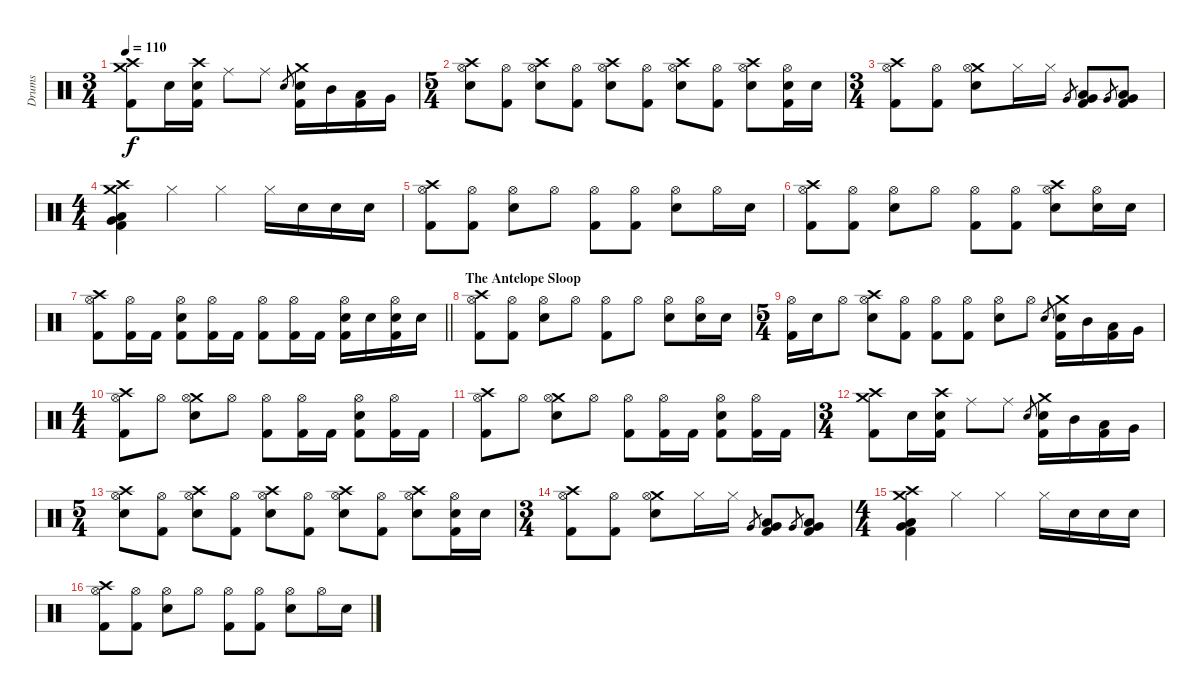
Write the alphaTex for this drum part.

\track ("Drums" "Drums") {instrument percussion}
\staff {score}
\articulation defaults
\ts (3 4)
\tempo 110
\clef neutral
\ks c
("Crash medium (hit)" "Crash high (hit)" "Kick (hit) 2").8{dy f} "Snare (hit) 2".16 ("Crash high (hit)" "Snare (hit) 2" "Kick (hit) 2").16 "Ride (middle)".8 "Ride (middle)".8 "Snare (hit) 2".8{gr} ("Crash medium (hit)" "Snare (hit) 2" "Kick (hit) 2").16 "Mid Tom (hit)".16 ("Low Tom (hit)" "Kick (hit) 2").16 "Very Low Tom (hit)".16 |
\ts (5 4)
("Crash high (hit)" "Hi-Hat (open)" "Snare (hit) 2").8 ("Hi-Hat (open)" "Kick (hit) 2").8 ("Crash high (hit)" "Hi-Hat (open)" "Snare (hit) 2").8 ("Hi-Hat (open)" "Kick (hit) 2").8 ("Crash high (hit)" "Hi-Hat (open)" "Snare (hit) 2").8 ("Hi-Hat (open)" "Kick (hit) 2").8 ("Crash high (hit)" "Hi-Hat (open)" "Snare (hit) 2").8 ("Hi-Hat (open)" "Kick (hit) 2").8 ("Crash high (hit)" "Hi-Hat (open)" "Snare (hit) 2").8 ("Hi-Hat (open)" "Snare (hit) 2" "Kick (hit) 2").16 "Snare (hit) 2".16 |
\ts (3 4)
("Crash high (hit)" "Hi-Hat (open)" "Kick (hit) 2").8 ("Hi-Hat (open)" "Kick (hit) 2").8 ("Crash medium (hit)" "Hi-Hat (open)" "Snare (hit) 2").8 "Hi-Hat (closed)".16 "Hi-Hat (closed)".16 "Very Low Tom (hit)".8{gr} ("Low Tom (hit)" "Very Low Tom (hit)" "Kick (hit) 2").8 "Very Low Tom (hit)".8{gr} ("Low Tom (hit)" "Very Low Tom (hit)" "Kick (hit) 2").8 |
\ts (4 4)
("Crash high (hit)" "Crash medium (hit)" "Low Tom (hit)" "Very Low Tom (hit)" "Kick (hit) 2").4 "Hi-Hat (closed)".4 "Hi-Hat (closed)".4 "Hi-Hat (closed)".16 "Snare (hit) 2".16 "Snare (hit) 2".16 "Snare (hit) 2".16 |
("Crash high (hit)" "Hi-Hat (open)" "Kick (hit) 2").8 ("Hi-Hat (open)" "Kick (hit) 2").8 ("Hi-Hat (open)" "Snare (hit) 2").8 "Hi-Hat (open)".8 ("Hi-Hat (open)" "Kick (hit) 2").8 ("Hi-Hat (open)" "Kick (hit) 2").8 ("Hi-Hat (open)" "Snare (hit) 2").8 "Hi-Hat (open)".16 "Snare (hit) 2".16 |
("Crash high (hit)" "Hi-Hat (open)" "Kick (hit) 2").8 ("Hi-Hat (open)" "Kick (hit) 2").8 ("Hi-Hat (open)" "Snare (hit) 2").8 "Hi-Hat (open)".8 ("Hi-Hat (open)" "Kick (hit) 2").8 ("Hi-Hat (open)" "Kick (hit) 2").8 ("Crash high (hit)" "Hi-Hat (open)" "Snare (hit) 2").8 ("Hi-Hat (open)" "Snare (hit) 2").16 "Snare (hit) 2".16 |
\barLineRight lightlight
("Crash high (hit)" "Hi-Hat (open)" "Kick (hit) 2").8 ("Hi-Hat (open)" "Kick (hit) 2").16 "Kick (hit) 2".16 ("Hi-Hat (open)" "Snare (hit) 2" "Kick (hit) 2").8 ("Hi-Hat (open)" "Kick (hit) 2").16 "Kick (hit) 2".16 ("Hi-Hat (open)" "Kick (hit) 2").8 ("Hi-Hat (open)" "Kick (hit) 2").16 "Kick (hit) 2".16 ("Hi-Hat (open)" "Snare (hit) 2" "Kick (hit) 2").16 "Snare (hit) 2".16 ("Hi-Hat (open)" "Snare (hit) 2" "Kick (hit) 2").16 "Snare (hit) 2".16 |
\section ("" "The Antelope Sloop")
("Crash high (hit)" "Hi-Hat (open)" "Kick (hit) 2").8 ("Hi-Hat (open)" "Kick (hit) 2").8 ("Hi-Hat (open)" "Snare (hit) 2").8 "Hi-Hat (open)".8 ("Hi-Hat (open)" "Kick (hit) 2").8 "Hi-Hat (open)".8 ("Hi-Hat (open)" "Snare (hit) 2").8 ("Hi-Hat (open)" "Snare (hit) 2").16 "Snare (hit) 2".16 |
\ts (5 4)
("Hi-Hat (open)" "Kick (hit) 2").16 "Snare (hit) 2".16 "Hi-Hat (open)".8 ("Crash high (hit)" "Hi-Hat (open)" "Snare (hit) 2").8 ("Hi-Hat (open)" "Kick (hit) 2").8 ("Hi-Hat (open)" "Kick (hit) 2").8 ("Hi-Hat (open)" "Kick (hit) 2").8 ("Hi-Hat (open)" "Snare (hit) 2").8 "Hi-Hat (open)".8 "Snare (hit) 2".8{gr} ("Crash medium (hit)" "Snare (hit) 2" "Kick (hit) 2").16 "Mid Tom (hit)".16 ("Low Tom (hit)" "Kick (hit) 2").16 "Very Low Tom (hit)".16 |
\ts (4 4)
("Crash high (hit)" "Hi-Hat (open)" "Kick (hit) 2").8 "Hi-Hat (open)".8 ("Crash medium (hit)" "Hi-Hat (open)" "Snare (hit) 2").8 "Hi-Hat (open)".8 ("Hi-Hat (open)" "Kick (hit) 2").8 ("Hi-Hat (open)" "Kick (hit) 2").16 "Kick (hit) 2".16 ("Hi-Hat (open)" "Snare (hit) 2" "Kick (hit) 2").8 ("Hi-Hat (open)" "Kick (hit) 2").16 "Kick (hit) 2".16 |
("Crash high (hit)" "Hi-Hat (open)" "Kick (hit) 2").8 "Hi-Hat (open)".8 ("Crash medium (hit)" "Hi-Hat (open)" "Snare (hit) 2").8 "Hi-Hat (open)".8 ("Hi-Hat (open)" "Kick (hit) 2").8 ("Hi-Hat (open)" "Kick (hit) 2").16 "Kick (hit) 2".16 ("Hi-Hat (open)" "Snare (hit) 2" "Kick (hit) 2").8 ("Hi-Hat (open)" "Kick (hit) 2").16 "Kick (hit) 2".16 |
\ts (3 4)
("Crash medium (hit)" "Crash high (hit)" "Kick (hit) 2").8 "Snare (hit) 2".16 ("Crash high (hit)" "Snare (hit) 2" "Kick (hit) 2").16 "Ride (middle)".8 "Ride (middle)".8 "Snare (hit) 2".8{gr} ("Crash medium (hit)" "Snare (hit) 2" "Kick (hit) 2").16 "Mid Tom (hit)".16 ("Low Tom (hit)" "Kick (hit) 2").16 "Very Low Tom (hit)".16 |
\ts (5 4)
("Crash high (hit)" "Hi-Hat (open)" "Snare (hit) 2").8 ("Hi-Hat (open)" "Kick (hit) 2").8 ("Crash high (hit)" "Hi-Hat (open)" "Snare (hit) 2").8 ("Hi-Hat (open)" "Kick (hit) 2").8 ("Crash high (hit)" "Hi-Hat (open)" "Snare (hit) 2").8 ("Hi-Hat (open)" "Kick (hit) 2").8 ("Crash high (hit)" "Hi-Hat (open)" "Snare (hit) 2").8 ("Hi-Hat (open)" "Kick (hit) 2").8 ("Crash high (hit)" "Hi-Hat (open)" "Snare (hit) 2").8 ("Hi-Hat (open)" "Snare (hit) 2" "Kick (hit) 2").16 "Snare (hit) 2".16 |
\ts (3 4)
("Crash high (hit)" "Hi-Hat (open)" "Kick (hit) 2").8 ("Hi-Hat (open)" "Kick (hit) 2").8 ("Crash medium (hit)" "Hi-Hat (open)" "Snare (hit) 2").8 "Hi-Hat (closed)".16 "Hi-Hat (closed)".16 "Very Low Tom (hit)".8{gr} ("Low Tom (hit)" "Very Low Tom (hit)" "Kick (hit) 2").8 "Very Low Tom (hit)".8{gr} ("Low Tom (hit)" "Very Low Tom (hit)" "Kick (hit) 2").8 |
\ts (4 4)
("Crash high (hit)" "Crash medium (hit)" "Low Tom (hit)" "Very Low Tom (hit)" "Kick (hit) 2").4 "Hi-Hat (closed)".4 "Hi-Hat (closed)".4 "Hi-Hat (closed)".16 "Snare (hit) 2".16 "Snare (hit) 2".16 "Snare (hit) 2".16 |
("Crash high (hit)" "Hi-Hat (open)" "Kick (hit) 2").8 ("Hi-Hat (open)" "Kick (hit) 2").8 ("Hi-Hat (open)" "Snare (hit) 2").8 "Hi-Hat (open)".8 ("Hi-Hat (open)" "Kick (hit) 2").8 ("Hi-Hat (open)" "Kick (hit) 2").8 ("Hi-Hat (open)" "Snare (hit) 2").8 "Hi-Hat (open)".16 "Snare (hit) 2".16
